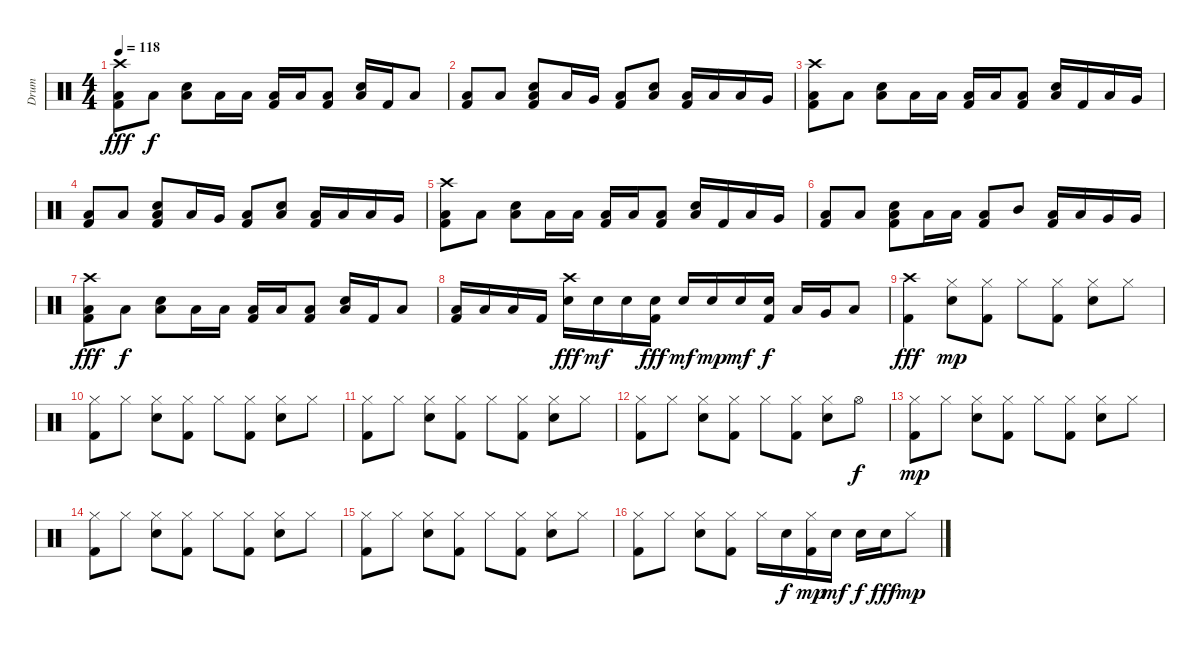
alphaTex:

\track ("Drum" "Drum") {instrument percussion}
\staff {score}
\articulation defaults
\ts (4 4)
\tempo 118
\clef neutral
\ks c
("Crash high (hit)" "Low Floor Tom (hit)" "Kick (hit) 2").8{dy fff} "Low Floor Tom (hit)".8{dy f} ("Snare (hit) 2" "Low Floor Tom (hit)").8 "Low Floor Tom (hit)".16 "Low Tom (hit)".16 ("Low Floor Tom (hit)" "Kick (hit) 2").16 "Low Tom (hit)".16 ("Low Floor Tom (hit)" "Kick (hit) 2").8 ("Snare (hit) 2" "Low Floor Tom (hit)").16 "Kick (hit) 2".16 "Low Floor Tom (hit)".8 |
("Low Floor Tom (hit)" "Kick (hit) 2").8 "Low Floor Tom (hit)".8 ("Snare (hit) 2" "Low Floor Tom (hit)" "Kick (hit) 2").8 "Low Floor Tom (hit)".16 "Very Low Tom (hit)".16 ("Low Floor Tom (hit)" "Kick (hit) 2").8 ("Snare (hit) 2" "Low Floor Tom (hit)").8 ("Low Floor Tom (hit)" "Kick (hit) 2").16 "Low Tom (hit)".16 "Low Floor Tom (hit)".16 "Very Low Tom (hit)".16 |
("Crash high (hit)" "Low Floor Tom (hit)" "Kick (hit) 2").8 "Low Floor Tom (hit)".8 ("Snare (hit) 2" "Low Floor Tom (hit)").8 "Low Floor Tom (hit)".16 "Low Tom (hit)".16 ("Low Floor Tom (hit)" "Kick (hit) 2").16 "Low Tom (hit)".16 ("Low Floor Tom (hit)" "Kick (hit) 2").8 ("Snare (hit) 2" "Low Floor Tom (hit)").16 "Kick (hit) 2".16 "Low Floor Tom (hit)".16 "Very Low Tom (hit)".16 |
("Low Floor Tom (hit)" "Kick (hit) 2").8 "Low Floor Tom (hit)".8 ("Snare (hit) 2" "Low Floor Tom (hit)" "Kick (hit) 2").8 "Low Floor Tom (hit)".16 "Very Low Tom (hit)".16 ("Low Floor Tom (hit)" "Kick (hit) 2").8 ("Snare (hit) 2" "Low Floor Tom (hit)").8 ("Low Floor Tom (hit)" "Kick (hit) 2").16 "Low Tom (hit)".16 "Low Floor Tom (hit)".16 "Very Low Tom (hit)".16 |
("Crash high (hit)" "Low Floor Tom (hit)" "Kick (hit) 2").8 "Low Floor Tom (hit)".8 ("Snare (hit) 2" "Low Floor Tom (hit)").8 "Low Floor Tom (hit)".16 "Low Tom (hit)".16 ("Low Floor Tom (hit)" "Kick (hit) 2").16 "Low Tom (hit)".16 ("Low Floor Tom (hit)" "Kick (hit) 2").8 ("Snare (hit) 2" "Low Floor Tom (hit)").16 "Kick (hit) 2".16 "Low Floor Tom (hit)".16 "Very Low Tom (hit)".16 |
("Low Floor Tom (hit)" "Kick (hit) 2").8 "Low Floor Tom (hit)".8 ("Snare (hit) 2" "Low Floor Tom (hit)" "Kick (hit) 2").8 "Low Floor Tom (hit)".16 "Low Tom (hit)".16 ("Low Floor Tom (hit)" "Kick (hit) 2").8 "Mid Tom (hit)".8 ("Low Floor Tom (hit)" "Kick (hit) 2").16 "Low Tom (hit)".16 "Very Low Tom (hit)".16 "Very Low Tom (hit)".16 |
("Crash high (hit)" "Low Floor Tom (hit)" "Kick (hit) 2").8{dy fff} "Low Floor Tom (hit)".8{dy f} ("Snare (hit) 2" "Low Floor Tom (hit)").8 "Low Floor Tom (hit)".16 "Low Tom (hit)".16 ("Low Floor Tom (hit)" "Kick (hit) 2").16 "Low Tom (hit)".16 ("Low Floor Tom (hit)" "Kick (hit) 2").8 ("Snare (hit) 2" "Low Floor Tom (hit)").16 "Kick (hit) 2".16 "Low Floor Tom (hit)".8 |
("Low Floor Tom (hit)" "Kick (hit) 2").16 "Low Floor Tom (hit)".16 "Low Floor Tom (hit)".16 "Kick (hit) 2".16 ("Crash high (hit)" "Snare (hit) 2").16{dy fff} "Snare (hit) 2".16{dy mf} "Snare (hit) 2".16 ("Snare (hit) 2" "Kick (hit) 2").16{dy fff} "Snare (hit) 2".16{dy mf} "Snare (hit) 2".16{dy mp} "Snare (hit) 2".16{dy mf} ("Snare (hit) 2" "Kick (hit) 2").16{dy f} "Low Tom (hit)".16 "Very Low Tom (hit)".16 "Low Floor Tom (hit)".8 |
("Crash high (hit)" "Kick (hit) 2").4{dy fff} ("Hi-Hat (closed)" "Snare (hit) 2").8{dy mp} ("Hi-Hat (closed)" "Kick (hit) 2").8 "Hi-Hat (closed)".8 ("Hi-Hat (closed)" "Kick (hit) 2").8 ("Hi-Hat (closed)" "Snare (hit) 2").8 "Hi-Hat (closed)".8 |
("Hi-Hat (closed)" "Kick (hit) 2").8 "Hi-Hat (closed)".8 ("Hi-Hat (closed)" "Snare (hit) 2").8 ("Hi-Hat (closed)" "Kick (hit) 2").8 "Hi-Hat (closed)".8 ("Hi-Hat (closed)" "Kick (hit) 2").8 ("Hi-Hat (closed)" "Snare (hit) 2").8 "Hi-Hat (closed)".8 |
("Hi-Hat (closed)" "Kick (hit) 2").8 "Hi-Hat (closed)".8 ("Hi-Hat (closed)" "Snare (hit) 2").8 ("Hi-Hat (closed)" "Kick (hit) 2").8 "Hi-Hat (closed)".8 ("Hi-Hat (closed)" "Kick (hit) 2").8 ("Hi-Hat (closed)" "Snare (hit) 2").8 "Hi-Hat (closed)".8 |
("Hi-Hat (closed)" "Kick (hit) 2").8 "Hi-Hat (closed)".8 ("Hi-Hat (closed)" "Snare (hit) 2").8 ("Hi-Hat (closed)" "Kick (hit) 2").8 "Hi-Hat (closed)".8 ("Hi-Hat (closed)" "Kick (hit) 2").8 ("Hi-Hat (closed)" "Snare (hit) 2").8 "Hi-Hat (open)".8{dy f} |
("Hi-Hat (closed)" "Kick (hit) 2").8{dy mp} "Hi-Hat (closed)".8 ("Hi-Hat (closed)" "Snare (hit) 2").8 ("Hi-Hat (closed)" "Kick (hit) 2").8 "Hi-Hat (closed)".8 ("Hi-Hat (closed)" "Kick (hit) 2").8 ("Hi-Hat (closed)" "Snare (hit) 2").8 "Hi-Hat (closed)".8 |
("Hi-Hat (closed)" "Kick (hit) 2").8 "Hi-Hat (closed)".8 ("Hi-Hat (closed)" "Snare (hit) 2").8 ("Hi-Hat (closed)" "Kick (hit) 2").8 "Hi-Hat (closed)".8 ("Hi-Hat (closed)" "Kick (hit) 2").8 ("Hi-Hat (closed)" "Snare (hit) 2").8 "Hi-Hat (closed)".8 |
("Hi-Hat (closed)" "Kick (hit) 2").8 "Hi-Hat (closed)".8 ("Hi-Hat (closed)" "Snare (hit) 2").8 ("Hi-Hat (closed)" "Kick (hit) 2").8 "Hi-Hat (closed)".8 ("Hi-Hat (closed)" "Kick (hit) 2").8 ("Hi-Hat (closed)" "Snare (hit) 2").8 "Hi-Hat (closed)".8 |
("Hi-Hat (closed)" "Kick (hit) 2").8 "Hi-Hat (closed)".8 ("Hi-Hat (closed)" "Snare (hit) 2").8 ("Hi-Hat (closed)" "Kick (hit) 2").8 "Hi-Hat (closed)".16 "Snare (hit) 2".16{dy f} ("Hi-Hat (closed)" "Kick (hit) 2").16{dy mp} "Snare (hit) 2".16{dy mf} "Snare (hit) 2".16{dy f} "Snare (hit) 2".16{dy fff} "Hi-Hat (closed)".8{dy mp}
